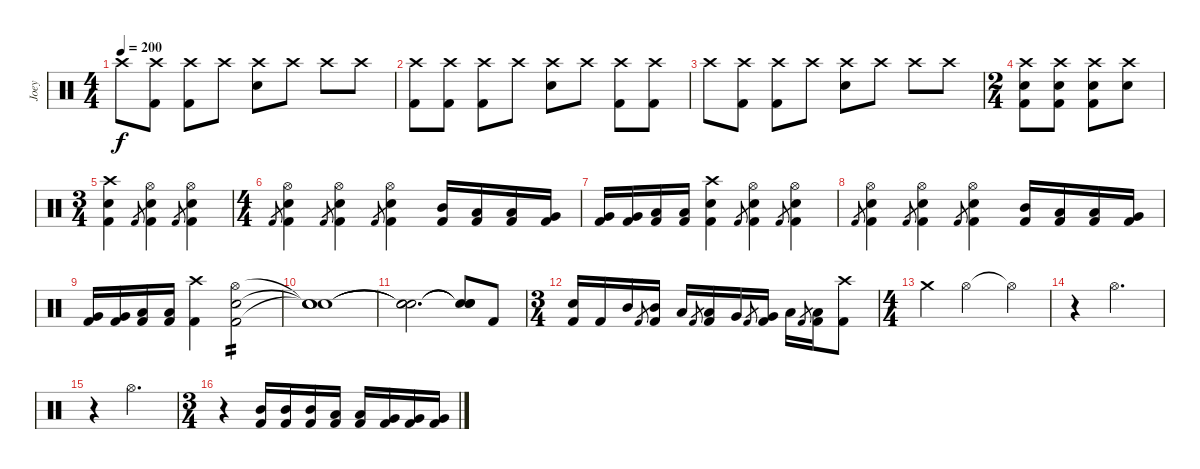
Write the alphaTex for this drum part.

\track ("Joey" "Joey") {instrument percussion}
\staff {score}
\articulation defaults
\ts (4 4)
\tempo 200
\clef neutral
\ks c "Crash high (hit)".8{dy f}
("Crash high (hit)" "Kick (hit) 2").8 ("Crash high (hit)" "Kick (hit) 2").8 "Crash high (hit)".8 ("Crash high (hit)" "Electric Snare (hit)").8 "Crash high (hit)".8 "Crash high (hit)".8 "Crash high (hit)".8 |
("Crash high (hit)" "Kick (hit) 2").8 ("Crash high (hit)" "Kick (hit) 2").8 ("Crash high (hit)" "Kick (hit) 2").8 "Crash high (hit)".8 ("Crash high (hit)" "Electric Snare (hit)").8 "Crash high (hit)".8 ("Crash high (hit)" "Kick (hit) 2").8 ("Crash high (hit)" "Kick (hit) 2").8 |
"Crash high (hit)".8 ("Crash high (hit)" "Kick (hit) 2").8 ("Crash high (hit)" "Kick (hit) 2").8 "Crash high (hit)".8 ("Crash high (hit)" "Electric Snare (hit)").8 "Crash high (hit)".8 "Crash high (hit)".8 "Crash high (hit)".8 |
\ts (2 4)
("Crash high (hit)" "Electric Snare (hit)" "Kick (hit) 2").8 ("Crash high (hit)" "Electric Snare (hit)" "Kick (hit) 2").8 ("Crash high (hit)" "Electric Snare (hit)" "Kick (hit) 2").8 ("Crash high (hit)" "Electric Snare (hit)").8 |
\ts (3 4)
("Crash high (hit)" "Electric Snare (hit)" "Kick (hit) 2").4 "Kick (hit) 2".8{gr} ("Hi-Hat (open)" "Electric Snare (hit)" "Kick (hit) 2").4 "Kick (hit) 2".8{gr} ("Hi-Hat (open)" "Electric Snare (hit)" "Kick (hit) 2").4 |
\ts (4 4)
"Kick (hit) 2".8{gr} ("Hi-Hat (open)" "Electric Snare (hit)" "Kick (hit) 2").4 "Kick (hit) 2".8{gr} ("Hi-Hat (open)" "Electric Snare (hit)" "Kick (hit) 2").4 "Kick (hit) 2".8{gr} ("Hi-Hat (open)" "Electric Snare (hit)" "Kick (hit) 2").4 ("Mid Tom (hit)" "Kick (hit) 2").16 ("Low Tom (hit)" "Kick (hit) 2").16 ("Low Tom (hit)" "Kick (hit) 2").16 ("Very Low Tom (hit)" "Kick (hit) 2").16 |
("Very Low Tom (hit)" "Kick (hit) 2").16 ("Very Low Tom (hit)" "Kick (hit) 2").16 ("Low Floor Tom (hit)" "Kick (hit) 2").16 ("Low Floor Tom (hit)" "Kick (hit) 2").16 ("Crash high (hit)" "Electric Snare (hit)" "Kick (hit) 2").4 "Kick (hit) 2".8{gr} ("Hi-Hat (open)" "Electric Snare (hit)" "Kick (hit) 2").4 "Kick (hit) 2".8{gr} ("Hi-Hat (open)" "Electric Snare (hit)" "Kick (hit) 2").4 |
"Kick (hit) 2".8{gr} ("Hi-Hat (open)" "Electric Snare (hit)" "Kick (hit) 2").4 "Kick (hit) 2".8{gr} ("Hi-Hat (open)" "Electric Snare (hit)" "Kick (hit) 2").4 "Kick (hit) 2".8{gr} ("Hi-Hat (open)" "Electric Snare (hit)" "Kick (hit) 2").4 ("Mid Tom (hit)" "Kick (hit) 2").16 ("Low Tom (hit)" "Kick (hit) 2").16 ("Low Tom (hit)" "Kick (hit) 2").16 ("Very Low Tom (hit)" "Kick (hit) 2").16 |
("Very Low Tom (hit)" "Kick (hit) 2").16 ("Very Low Tom (hit)" "Kick (hit) 2").16 ("Low Floor Tom (hit)" "Kick (hit) 2").16 ("Low Floor Tom (hit)" "Kick (hit) 2").16 ("Crash high (hit)" "Kick (hit) 2").4 ("Hi-Hat (open)" "Electric Snare (hit)" "Kick (hit) 2").2{tp 2} |
("Snare (hit)"{t} "Snare (hit)"{t} "Snare (hit)"{t}).1 |
("Snare (hit)"{t} "Snare (hit)"{t} "Snare (hit)"{t}).2{d} ("Snare (hit)"{t} "Snare (hit)"{t} "Snare (hit)"{t}).8 "Kick (hit) 2".8 |
\ts (3 4)
("Electric Snare (hit)" "Kick (hit) 2").16 "Kick (hit) 2".16 "Mid Tom (hit)".16 "Kick (hit) 2".8{gr} ("Mid Tom (hit)" "Kick (hit) 2").16 "Low Tom (hit)".16 "Kick (hit) 2".8{gr} ("Low Tom (hit)" "Kick (hit) 2").16 "Very Low Tom (hit)".16 "Kick (hit) 2".8{gr} ("Very Low Tom (hit)" "Kick (hit) 2").16 "Low Floor Tom (hit)".16 "Kick (hit) 2".8{gr} ("Low Floor Tom (hit)" "Kick (hit) 2").16 ("Crash high (hit)" "Kick (hit) 2").8 |
\ts (4 4)
"Crash medium (hit)".4 "Hi-Hat (open)".2 "Hi-Hat (open)"{t}.4 |
r.4 "Hi-Hat (open)".2{d} |
r.4 "Hi-Hat (open)".2{d} |
\ts (3 4)
r.4 ("Mid Tom (hit)" "Kick (hit) 2").16 ("Mid Tom (hit)" "Kick (hit) 2").16 ("Mid Tom (hit)" "Kick (hit) 2").16 ("Low Tom (hit)" "Kick (hit) 2").16 ("Low Tom (hit)" "Kick (hit) 2").16 ("Very Low Tom (hit)" "Kick (hit) 2").16 ("Very Low Tom (hit)" "Kick (hit) 2").16 ("Very Low Tom (hit)" "Kick (hit) 2").16
